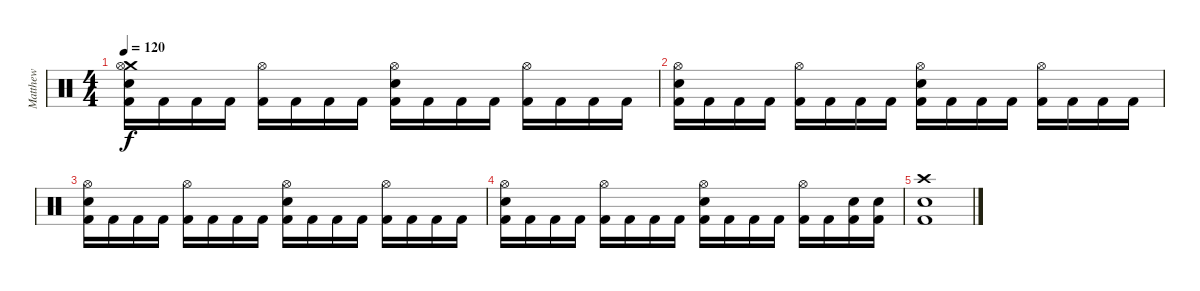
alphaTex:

\track ("Matthew" "Matthew") {instrument percussion}
\staff {score}
\articulation defaults
\ts (4 4)
\tempo 120
\clef neutral
\ks c
("Crash medium (hit)" "Hi-Hat (open)" "Electric Snare (hit)" "Kick (hit) 2").16{dy f} "Kick (hit) 2".16 "Kick (hit) 2".16 "Kick (hit) 2".16 ("Hi-Hat (open)" "Kick (hit) 2").16 "Kick (hit) 2".16 "Kick (hit) 2".16 "Kick (hit) 2".16 ("Hi-Hat (open)" "Electric Snare (hit)" "Kick (hit) 2").16 "Kick (hit) 2".16 "Kick (hit) 2".16 "Kick (hit) 2".16 ("Hi-Hat (open)" "Kick (hit) 2").16 "Kick (hit) 2".16 "Kick (hit) 2".16 "Kick (hit) 2".16 |
("Hi-Hat (open)" "Electric Snare (hit)" "Kick (hit) 2").16 "Kick (hit) 2".16 "Kick (hit) 2".16 "Kick (hit) 2".16 ("Hi-Hat (open)" "Kick (hit) 2").16 "Kick (hit) 2".16 "Kick (hit) 2".16 "Kick (hit) 2".16 ("Hi-Hat (open)" "Electric Snare (hit)" "Kick (hit) 2").16 "Kick (hit) 2".16 "Kick (hit) 2".16 "Kick (hit) 2".16 ("Hi-Hat (open)" "Kick (hit) 2").16 "Kick (hit) 2".16 "Kick (hit) 2".16 "Kick (hit) 2".16 |
("Hi-Hat (open)" "Electric Snare (hit)" "Kick (hit) 2").16 "Kick (hit) 2".16 "Kick (hit) 2".16 "Kick (hit) 2".16 ("Hi-Hat (open)" "Kick (hit) 2").16 "Kick (hit) 2".16 "Kick (hit) 2".16 "Kick (hit) 2".16 ("Hi-Hat (open)" "Electric Snare (hit)" "Kick (hit) 2").16 "Kick (hit) 2".16 "Kick (hit) 2".16 "Kick (hit) 2".16 ("Hi-Hat (open)" "Kick (hit) 2").16 "Kick (hit) 2".16 "Kick (hit) 2".16 "Kick (hit) 2".16 |
("Hi-Hat (open)" "Electric Snare (hit)" "Kick (hit) 2").16 "Kick (hit) 2".16 "Kick (hit) 2".16 "Kick (hit) 2".16 ("Hi-Hat (open)" "Kick (hit) 2").16 "Kick (hit) 2".16 "Kick (hit) 2".16 "Kick (hit) 2".16 ("Hi-Hat (open)" "Electric Snare (hit)" "Kick (hit) 2").16 "Kick (hit) 2".16 "Kick (hit) 2".16 "Kick (hit) 2".16 ("Hi-Hat (open)" "Kick (hit) 2").16 "Kick (hit) 2".16 ("Electric Snare (hit)" "Kick (hit) 2").16 ("Electric Snare (hit)" "Kick (hit) 2").16 |
("Crash high (hit)" "Electric Snare (hit)" "Kick (hit) 2").1
